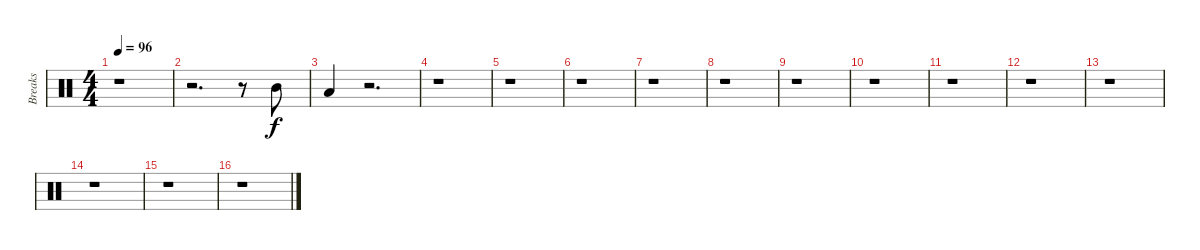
\track ("Breaks" "Breaks") {instrument percussion}
\staff {score}
\articulation defaults
\ts (4 4)
\tempo 96
\clef neutral
\ks c
r.1{dy f} |
r.2{d} r.8 "Mid Tom (hit)".8 |
"Low Floor Tom (hit)".4 r.2{d} |
r.1 |
r.1 |
r.1 |
r.1 |
r.1 |
r.1 |
r.1 |
r.1 |
r.1 |
r.1 |
r.1 |
r.1 |
r.1
